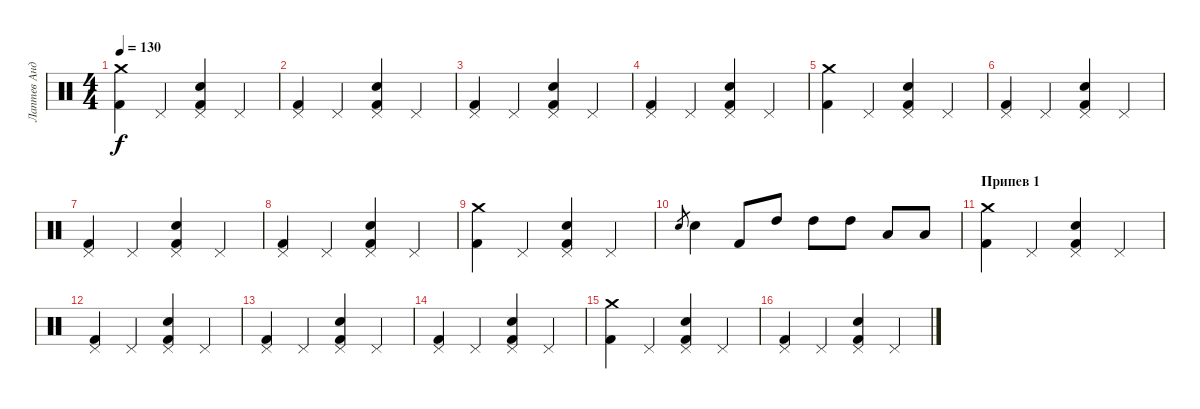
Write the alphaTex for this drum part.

\track ("Лаптев Андрей" "Лаптев Анд") {instrument percussion}
\staff {score}
\articulation defaults
\ts (4 4)
\tempo 130
\clef neutral
\ks c
("Crash medium (hit)" "Kick (hit) 2").4{dy f} "Pedal Hi-Hat (hit)".4 ("Pedal Hi-Hat (hit)" "Electric Snare (hit)" "Kick (hit) 2").4 "Pedal Hi-Hat (hit)".4 |
("Kick (hit) 2" "Pedal Hi-Hat (hit)").4 "Pedal Hi-Hat (hit)".4 ("Pedal Hi-Hat (hit)" "Electric Snare (hit)" "Kick (hit) 2").4 "Pedal Hi-Hat (hit)".4 |
("Kick (hit) 2" "Pedal Hi-Hat (hit)").4 "Pedal Hi-Hat (hit)".4 ("Pedal Hi-Hat (hit)" "Electric Snare (hit)" "Kick (hit) 2").4 "Pedal Hi-Hat (hit)".4 |
("Kick (hit) 2" "Pedal Hi-Hat (hit)").4 "Pedal Hi-Hat (hit)".4 ("Pedal Hi-Hat (hit)" "Electric Snare (hit)" "Kick (hit) 2").4 "Pedal Hi-Hat (hit)".4 |
("Crash medium (hit)" "Kick (hit) 2").4 "Pedal Hi-Hat (hit)".4 ("Pedal Hi-Hat (hit)" "Electric Snare (hit)" "Kick (hit) 2").4 "Pedal Hi-Hat (hit)".4 |
("Kick (hit) 2" "Pedal Hi-Hat (hit)").4 "Pedal Hi-Hat (hit)".4 ("Pedal Hi-Hat (hit)" "Electric Snare (hit)" "Kick (hit) 2").4 "Pedal Hi-Hat (hit)".4 |
("Kick (hit) 2" "Pedal Hi-Hat (hit)").4 "Pedal Hi-Hat (hit)".4 ("Pedal Hi-Hat (hit)" "Electric Snare (hit)" "Kick (hit) 2").4 "Pedal Hi-Hat (hit)".4 |
("Kick (hit) 2" "Pedal Hi-Hat (hit)").4 "Pedal Hi-Hat (hit)".4 ("Pedal Hi-Hat (hit)" "Electric Snare (hit)" "Kick (hit) 2").4 "Pedal Hi-Hat (hit)".4 |
("Crash medium (hit)" "Kick (hit) 2").4 "Pedal Hi-Hat (hit)".4 ("Pedal Hi-Hat (hit)" "Electric Snare (hit)" "Kick (hit) 2").4 "Pedal Hi-Hat (hit)".4 |
"Electric Snare (hit)".8{gr} "Electric Snare (hit)".4 "Kick (hit) 2".8 "High Tom (hit)".8 "High Tom (hit)".8 "High Tom (hit)".8 "Low Tom (hit)".8 "Low Tom (hit)".8 |
\section ("" "Припев 1")
("Crash medium (hit)" "Kick (hit) 2").4 "Pedal Hi-Hat (hit)".4 ("Pedal Hi-Hat (hit)" "Electric Snare (hit)" "Kick (hit) 2").4 "Pedal Hi-Hat (hit)".4 |
("Kick (hit) 2" "Pedal Hi-Hat (hit)").4 "Pedal Hi-Hat (hit)".4 ("Pedal Hi-Hat (hit)" "Electric Snare (hit)" "Kick (hit) 2").4 "Pedal Hi-Hat (hit)".4 |
("Kick (hit) 2" "Pedal Hi-Hat (hit)").4 "Pedal Hi-Hat (hit)".4 ("Pedal Hi-Hat (hit)" "Electric Snare (hit)" "Kick (hit) 2").4 "Pedal Hi-Hat (hit)".4 |
("Kick (hit) 2" "Pedal Hi-Hat (hit)").4 "Pedal Hi-Hat (hit)".4 ("Pedal Hi-Hat (hit)" "Electric Snare (hit)" "Kick (hit) 2").4 "Pedal Hi-Hat (hit)".4 |
("Crash medium (hit)" "Kick (hit) 2").4 "Pedal Hi-Hat (hit)".4 ("Pedal Hi-Hat (hit)" "Electric Snare (hit)" "Kick (hit) 2").4 "Pedal Hi-Hat (hit)".4 |
("Kick (hit) 2" "Pedal Hi-Hat (hit)").4 "Pedal Hi-Hat (hit)".4 ("Pedal Hi-Hat (hit)" "Electric Snare (hit)" "Kick (hit) 2").4 "Pedal Hi-Hat (hit)".4
